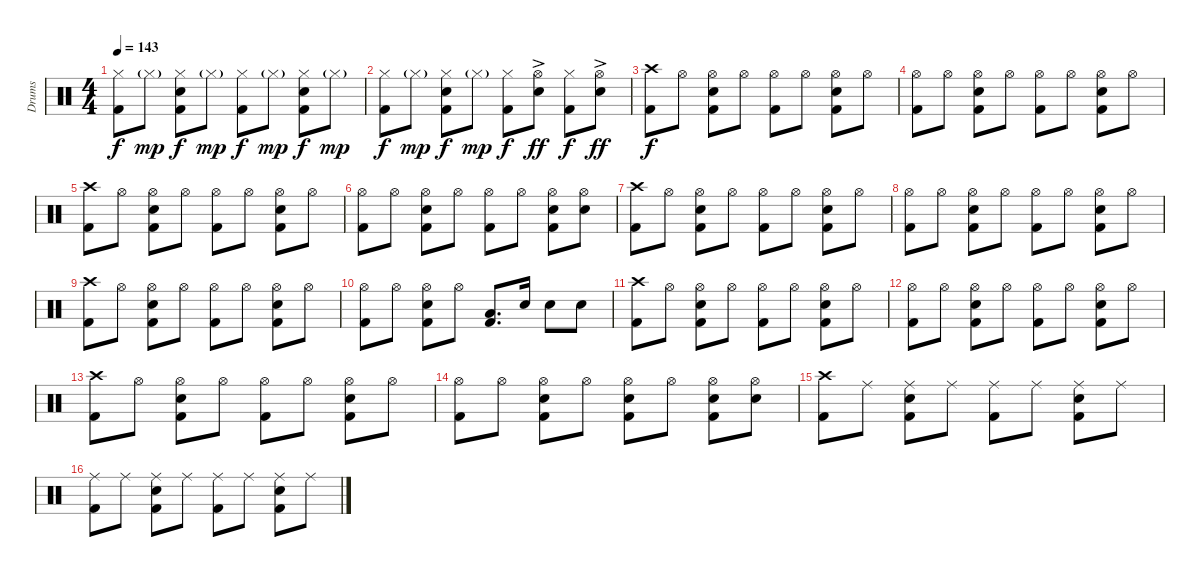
\track ("Drums" "Drums") {instrument percussion}
\staff {score}
\articulation defaults
\ts (4 4)
\tempo 143
\clef neutral
\ks c
("Hi-Hat (closed)" "Kick (hit) 2").8{dy f} "Hi-Hat (closed)"{g}.8{dy mp} ("Hi-Hat (closed)" "Electric Snare (hit)" "Kick (hit) 2").8{dy f} "Hi-Hat (closed)"{g}.8{dy mp} ("Hi-Hat (closed)" "Kick (hit) 2").8{dy f} "Hi-Hat (closed)"{g}.8{dy mp} ("Hi-Hat (closed)" "Electric Snare (hit)" "Kick (hit) 2").8{dy f} "Hi-Hat (closed)"{g}.8{dy mp} |
("Hi-Hat (closed)" "Kick (hit) 2").8{dy f} "Hi-Hat (closed)"{g}.8{dy mp} ("Hi-Hat (closed)" "Electric Snare (hit)" "Kick (hit) 2").8{dy f} "Hi-Hat (closed)"{g}.8{dy mp} ("Hi-Hat (closed)" "Kick (hit) 2").8{dy f} ("Hi-Hat (open)"{ac} "Electric Snare (hit)").8{dy ff} ("Hi-Hat (closed)" "Kick (hit) 2").8{dy f} ("Hi-Hat (open)"{ac} "Electric Snare (hit)").8{dy ff} |
("Crash high (hit)" "Kick (hit) 2").8{dy f} "Hi-Hat (open)".8 ("Hi-Hat (open)" "Electric Snare (hit)" "Kick (hit) 2").8 "Hi-Hat (open)".8 ("Hi-Hat (open)" "Kick (hit) 2").8 "Hi-Hat (open)".8 ("Hi-Hat (open)" "Electric Snare (hit)" "Kick (hit) 2").8 "Hi-Hat (open)".8 |
("Hi-Hat (open)" "Kick (hit) 2").8 "Hi-Hat (open)".8 ("Hi-Hat (open)" "Electric Snare (hit)" "Kick (hit) 2").8 "Hi-Hat (open)".8 ("Hi-Hat (open)" "Kick (hit) 2").8 "Hi-Hat (open)".8 ("Hi-Hat (open)" "Electric Snare (hit)" "Kick (hit) 2").8 "Hi-Hat (open)".8 |
("Crash high (hit)" "Kick (hit) 2").8 "Hi-Hat (open)".8 ("Hi-Hat (open)" "Electric Snare (hit)" "Kick (hit) 2").8 "Hi-Hat (open)".8 ("Hi-Hat (open)" "Kick (hit) 2").8 "Hi-Hat (open)".8 ("Hi-Hat (open)" "Electric Snare (hit)" "Kick (hit) 2").8 "Hi-Hat (open)".8 |
("Hi-Hat (open)" "Kick (hit) 2").8 "Hi-Hat (open)".8 ("Hi-Hat (open)" "Electric Snare (hit)" "Kick (hit) 2").8 "Hi-Hat (open)".8 ("Hi-Hat (open)" "Kick (hit) 2").8 "Hi-Hat (open)".8 ("Hi-Hat (open)" "Electric Snare (hit)" "Kick (hit) 2").8 ("Hi-Hat (open)" "Electric Snare (hit)").8 |
("Crash high (hit)" "Kick (hit) 2").8 "Hi-Hat (open)".8 ("Hi-Hat (open)" "Electric Snare (hit)" "Kick (hit) 2").8 "Hi-Hat (open)".8 ("Hi-Hat (open)" "Kick (hit) 2").8 "Hi-Hat (open)".8 ("Hi-Hat (open)" "Electric Snare (hit)" "Kick (hit) 2").8 "Hi-Hat (open)".8 |
("Hi-Hat (open)" "Kick (hit) 2").8 "Hi-Hat (open)".8 ("Hi-Hat (open)" "Electric Snare (hit)" "Kick (hit) 2").8 "Hi-Hat (open)".8 ("Hi-Hat (open)" "Kick (hit) 2").8 "Hi-Hat (open)".8 ("Hi-Hat (open)" "Electric Snare (hit)" "Kick (hit) 2").8 "Hi-Hat (open)".8 |
("Crash high (hit)" "Kick (hit) 2").8 "Hi-Hat (open)".8 ("Hi-Hat (open)" "Electric Snare (hit)" "Kick (hit) 2").8 "Hi-Hat (open)".8 ("Hi-Hat (open)" "Kick (hit) 2").8 "Hi-Hat (open)".8 ("Hi-Hat (open)" "Electric Snare (hit)" "Kick (hit) 2").8 "Hi-Hat (open)".8 |
("Hi-Hat (open)" "Kick (hit) 2").8 "Hi-Hat (open)".8 ("Hi-Hat (open)" "Electric Snare (hit)" "Kick (hit) 2").8 "Hi-Hat (open)".8 ("Low Floor Tom (hit)" "Kick (hit) 2").8{d} "Electric Snare (hit)".16 "Electric Snare (hit)".8 "Electric Snare (hit)".8 |
("Crash high (hit)" "Kick (hit) 2").8 "Hi-Hat (open)".8 ("Hi-Hat (open)" "Electric Snare (hit)" "Kick (hit) 2").8 "Hi-Hat (open)".8 ("Hi-Hat (open)" "Kick (hit) 2").8 "Hi-Hat (open)".8 ("Hi-Hat (open)" "Electric Snare (hit)" "Kick (hit) 2").8 "Hi-Hat (open)".8 |
("Hi-Hat (open)" "Kick (hit) 2").8 "Hi-Hat (open)".8 ("Hi-Hat (open)" "Electric Snare (hit)" "Kick (hit) 2").8 "Hi-Hat (open)".8 ("Hi-Hat (open)" "Kick (hit) 2").8 "Hi-Hat (open)".8 ("Hi-Hat (open)" "Electric Snare (hit)" "Kick (hit) 2").8 "Hi-Hat (open)".8 |
("Crash high (hit)" "Kick (hit) 2").8 "Hi-Hat (open)".8 ("Hi-Hat (open)" "Electric Snare (hit)" "Kick (hit) 2").8 "Hi-Hat (open)".8 ("Hi-Hat (open)" "Kick (hit) 2").8 "Hi-Hat (open)".8 ("Hi-Hat (open)" "Electric Snare (hit)" "Kick (hit) 2").8 "Hi-Hat (open)".8 |
("Hi-Hat (open)" "Kick (hit) 2").8 "Hi-Hat (open)".8 ("Hi-Hat (open)" "Electric Snare (hit)" "Kick (hit) 2").8 "Hi-Hat (open)".8 ("Hi-Hat (open)" "Electric Snare (hit)" "Kick (hit) 2").8 "Hi-Hat (open)".8 ("Hi-Hat (open)" "Electric Snare (hit)" "Kick (hit) 2").8 ("Hi-Hat (open)" "Electric Snare (hit)").8 |
("Crash high (hit)" "Kick (hit) 2").8 "Ride (middle)".8 ("Ride (middle)" "Electric Snare (hit)" "Kick (hit) 2").8 "Ride (middle)".8 ("Ride (middle)" "Kick (hit) 2").8 "Ride (middle)".8 ("Ride (middle)" "Electric Snare (hit)" "Kick (hit) 2").8 "Ride (middle)".8 |
("Ride (middle)" "Kick (hit) 2").8 "Ride (middle)".8 ("Ride (middle)" "Electric Snare (hit)" "Kick (hit) 2").8 "Ride (middle)".8 ("Ride (middle)" "Kick (hit) 2").8 "Ride (middle)".8 ("Ride (middle)" "Electric Snare (hit)" "Kick (hit) 2").8 "Ride (middle)".8
